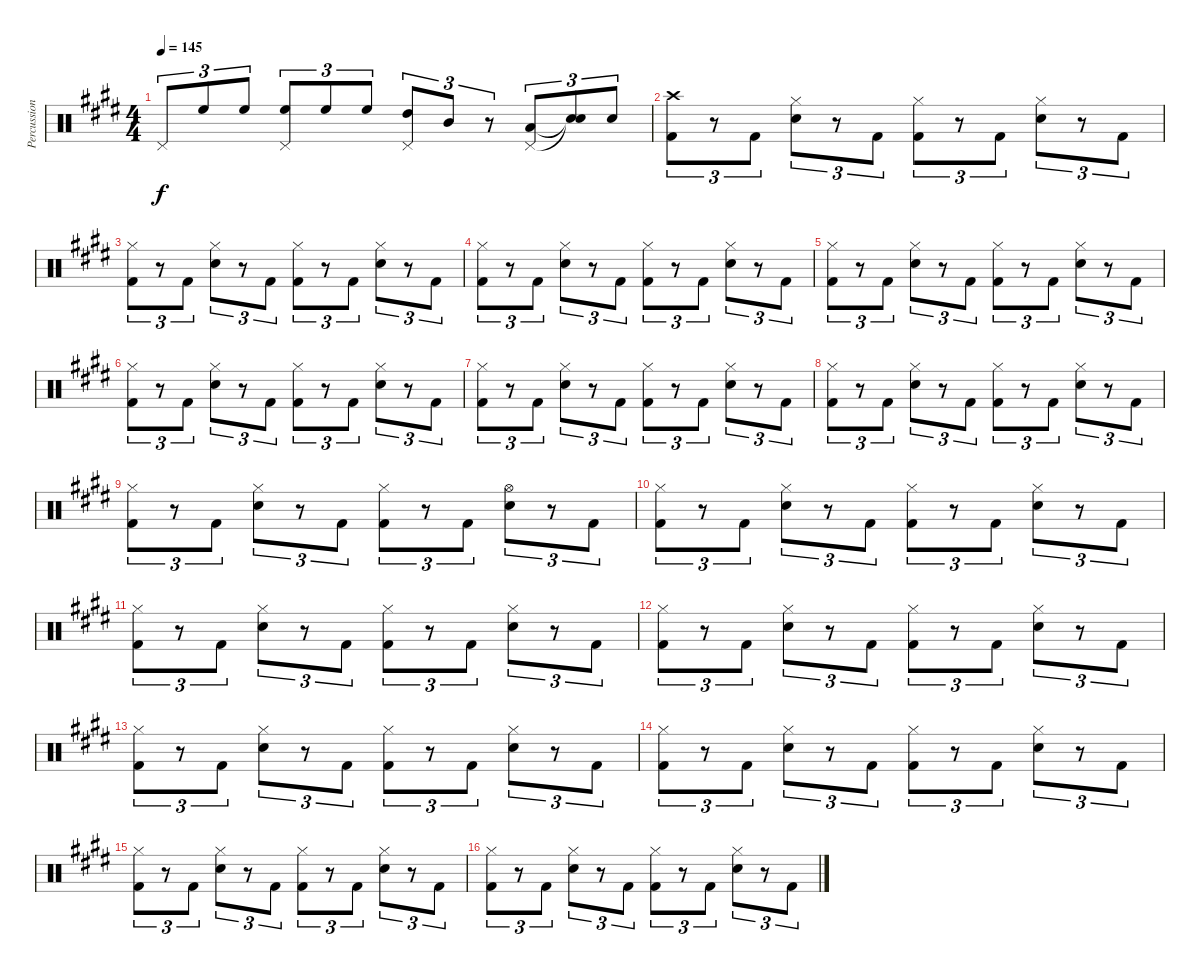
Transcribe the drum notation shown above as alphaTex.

\track ("Percussions" "Percussion") {solo instrument percussion}
\staff {score}
\articulation defaults
\ts (4 4)
\tempo 145
\clef neutral
\ks e "Pedal Hi-Hat (hit)".8{tu (3 2) dy f} "High Floor Tom (hit)".8{tu (3 2)} "High Floor Tom (hit)".8{tu (3 2)}
("High Floor Tom (hit)" "Pedal Hi-Hat (hit)").8{tu (3 2)} "High Floor Tom (hit)".8{tu (3 2)} "High Floor Tom (hit)".8{tu (3 2)} ("High Tom (hit)" "Pedal Hi-Hat (hit)").8{tu (3 2)} "Mid Tom (hit)".8{tu (3 2)} r.8{tu (3 2)} ("Low Tom (hit)" "Pedal Hi-Hat (hit)").8{tu (3 2)} ("Snare (hit)"{t} "Snare (hit)"{t}).8{tu (3 2)} "Electric Snare (hit)".8{tu (3 2)} |
("Crash high (hit)" "Kick (hit) 2").8{tu (3 2)} r.8{tu (3 2)} "Kick (hit) 2".8{tu (3 2)} ("Hi-Hat (closed)" "Snare (hit) 2").8{tu (3 2)} r.8{tu (3 2)} "Kick (hit) 2".8{tu (3 2)} ("Hi-Hat (closed)" "Kick (hit) 2").8{tu (3 2)} r.8{tu (3 2)} "Kick (hit) 2".8{tu (3 2)} ("Hi-Hat (closed)" "Snare (hit) 2").8{tu (3 2)} r.8{tu (3 2)} "Kick (hit) 2".8{tu (3 2)} |
("Hi-Hat (closed)" "Kick (hit) 2").8{tu (3 2)} r.8{tu (3 2)} "Kick (hit) 2".8{tu (3 2)} ("Hi-Hat (closed)" "Snare (hit) 2").8{tu (3 2)} r.8{tu (3 2)} "Kick (hit) 2".8{tu (3 2)} ("Hi-Hat (closed)" "Kick (hit) 2").8{tu (3 2)} r.8{tu (3 2)} "Kick (hit) 2".8{tu (3 2)} ("Hi-Hat (closed)" "Snare (hit) 2").8{tu (3 2)} r.8{tu (3 2)} "Kick (hit) 2".8{tu (3 2)} |
("Hi-Hat (closed)" "Kick (hit) 2").8{tu (3 2)} r.8{tu (3 2)} "Kick (hit) 2".8{tu (3 2)} ("Hi-Hat (closed)" "Snare (hit) 2").8{tu (3 2)} r.8{tu (3 2)} "Kick (hit) 2".8{tu (3 2)} ("Hi-Hat (closed)" "Kick (hit) 2").8{tu (3 2)} r.8{tu (3 2)} "Kick (hit) 2".8{tu (3 2)} ("Hi-Hat (closed)" "Snare (hit) 2").8{tu (3 2)} r.8{tu (3 2)} "Kick (hit) 2".8{tu (3 2)} |
("Hi-Hat (closed)" "Kick (hit) 2").8{tu (3 2)} r.8{tu (3 2)} "Kick (hit) 2".8{tu (3 2)} ("Hi-Hat (closed)" "Snare (hit) 2").8{tu (3 2)} r.8{tu (3 2)} "Kick (hit) 2".8{tu (3 2)} ("Hi-Hat (closed)" "Kick (hit) 2").8{tu (3 2)} r.8{tu (3 2)} "Kick (hit) 2".8{tu (3 2)} ("Hi-Hat (closed)" "Snare (hit) 2").8{tu (3 2)} r.8{tu (3 2)} "Kick (hit) 2".8{tu (3 2)} |
("Hi-Hat (closed)" "Kick (hit) 2").8{tu (3 2)} r.8{tu (3 2)} "Kick (hit) 2".8{tu (3 2)} ("Hi-Hat (closed)" "Snare (hit) 2").8{tu (3 2)} r.8{tu (3 2)} "Kick (hit) 2".8{tu (3 2)} ("Hi-Hat (closed)" "Kick (hit) 2").8{tu (3 2)} r.8{tu (3 2)} "Kick (hit) 2".8{tu (3 2)} ("Hi-Hat (closed)" "Snare (hit) 2").8{tu (3 2)} r.8{tu (3 2)} "Kick (hit) 2".8{tu (3 2)} |
("Hi-Hat (closed)" "Kick (hit) 2").8{tu (3 2)} r.8{tu (3 2)} "Kick (hit) 2".8{tu (3 2)} ("Hi-Hat (closed)" "Snare (hit) 2").8{tu (3 2)} r.8{tu (3 2)} "Kick (hit) 2".8{tu (3 2)} ("Hi-Hat (closed)" "Kick (hit) 2").8{tu (3 2)} r.8{tu (3 2)} "Kick (hit) 2".8{tu (3 2)} ("Hi-Hat (closed)" "Snare (hit) 2").8{tu (3 2)} r.8{tu (3 2)} "Kick (hit) 2".8{tu (3 2)} |
("Hi-Hat (closed)" "Kick (hit) 2").8{tu (3 2)} r.8{tu (3 2)} "Kick (hit) 2".8{tu (3 2)} ("Hi-Hat (closed)" "Snare (hit) 2").8{tu (3 2)} r.8{tu (3 2)} "Kick (hit) 2".8{tu (3 2)} ("Hi-Hat (closed)" "Kick (hit) 2").8{tu (3 2)} r.8{tu (3 2)} "Kick (hit) 2".8{tu (3 2)} ("Hi-Hat (closed)" "Snare (hit) 2").8{tu (3 2)} r.8{tu (3 2)} "Kick (hit) 2".8{tu (3 2)} |
("Hi-Hat (closed)" "Kick (hit) 2").8{tu (3 2)} r.8{tu (3 2)} "Kick (hit) 2".8{tu (3 2)} ("Hi-Hat (closed)" "Snare (hit) 2").8{tu (3 2)} r.8{tu (3 2)} "Kick (hit) 2".8{tu (3 2)} ("Hi-Hat (closed)" "Kick (hit) 2").8{tu (3 2)} r.8{tu (3 2)} "Kick (hit) 2".8{tu (3 2)} ("Hi-Hat (open)" "Snare (hit) 2").8{tu (3 2)} r.8{tu (3 2)} "Kick (hit) 2".8{tu (3 2)} |
("Hi-Hat (closed)" "Kick (hit) 2").8{tu (3 2)} r.8{tu (3 2)} "Kick (hit) 2".8{tu (3 2)} ("Hi-Hat (closed)" "Snare (hit) 2").8{tu (3 2)} r.8{tu (3 2)} "Kick (hit) 2".8{tu (3 2)} ("Hi-Hat (closed)" "Kick (hit) 2").8{tu (3 2)} r.8{tu (3 2)} "Kick (hit) 2".8{tu (3 2)} ("Hi-Hat (closed)" "Snare (hit) 2").8{tu (3 2)} r.8{tu (3 2)} "Kick (hit) 2".8{tu (3 2)} |
("Hi-Hat (closed)" "Kick (hit) 2").8{tu (3 2)} r.8{tu (3 2)} "Kick (hit) 2".8{tu (3 2)} ("Hi-Hat (closed)" "Snare (hit) 2").8{tu (3 2)} r.8{tu (3 2)} "Kick (hit) 2".8{tu (3 2)} ("Hi-Hat (closed)" "Kick (hit) 2").8{tu (3 2)} r.8{tu (3 2)} "Kick (hit) 2".8{tu (3 2)} ("Hi-Hat (closed)" "Snare (hit) 2").8{tu (3 2)} r.8{tu (3 2)} "Kick (hit) 2".8{tu (3 2)} |
("Hi-Hat (closed)" "Kick (hit) 2").8{tu (3 2)} r.8{tu (3 2)} "Kick (hit) 2".8{tu (3 2)} ("Hi-Hat (closed)" "Snare (hit) 2").8{tu (3 2)} r.8{tu (3 2)} "Kick (hit) 2".8{tu (3 2)} ("Hi-Hat (closed)" "Kick (hit) 2").8{tu (3 2)} r.8{tu (3 2)} "Kick (hit) 2".8{tu (3 2)} ("Hi-Hat (closed)" "Snare (hit) 2").8{tu (3 2)} r.8{tu (3 2)} "Kick (hit) 2".8{tu (3 2)} |
("Hi-Hat (closed)" "Kick (hit) 2").8{tu (3 2)} r.8{tu (3 2)} "Kick (hit) 2".8{tu (3 2)} ("Hi-Hat (closed)" "Snare (hit) 2").8{tu (3 2)} r.8{tu (3 2)} "Kick (hit) 2".8{tu (3 2)} ("Hi-Hat (closed)" "Kick (hit) 2").8{tu (3 2)} r.8{tu (3 2)} "Kick (hit) 2".8{tu (3 2)} ("Hi-Hat (closed)" "Snare (hit) 2").8{tu (3 2)} r.8{tu (3 2)} "Kick (hit) 2".8{tu (3 2)} |
("Hi-Hat (closed)" "Kick (hit) 2").8{tu (3 2)} r.8{tu (3 2)} "Kick (hit) 2".8{tu (3 2)} ("Hi-Hat (closed)" "Snare (hit) 2").8{tu (3 2)} r.8{tu (3 2)} "Kick (hit) 2".8{tu (3 2)} ("Hi-Hat (closed)" "Kick (hit) 2").8{tu (3 2)} r.8{tu (3 2)} "Kick (hit) 2".8{tu (3 2)} ("Hi-Hat (closed)" "Snare (hit) 2").8{tu (3 2)} r.8{tu (3 2)} "Kick (hit) 2".8{tu (3 2)} |
("Hi-Hat (closed)" "Kick (hit) 2").8{tu (3 2)} r.8{tu (3 2)} "Kick (hit) 2".8{tu (3 2)} ("Hi-Hat (closed)" "Snare (hit) 2").8{tu (3 2)} r.8{tu (3 2)} "Kick (hit) 2".8{tu (3 2)} ("Hi-Hat (closed)" "Kick (hit) 2").8{tu (3 2)} r.8{tu (3 2)} "Kick (hit) 2".8{tu (3 2)} ("Hi-Hat (closed)" "Snare (hit) 2").8{tu (3 2)} r.8{tu (3 2)} "Kick (hit) 2".8{tu (3 2)} |
("Hi-Hat (closed)" "Kick (hit) 2").8{tu (3 2)} r.8{tu (3 2)} "Kick (hit) 2".8{tu (3 2)} ("Hi-Hat (closed)" "Snare (hit) 2").8{tu (3 2)} r.8{tu (3 2)} "Kick (hit) 2".8{tu (3 2)} ("Hi-Hat (closed)" "Kick (hit) 2").8{tu (3 2)} r.8{tu (3 2)} "Kick (hit) 2".8{tu (3 2)} ("Hi-Hat (closed)" "Snare (hit) 2").8{tu (3 2)} r.8{tu (3 2)} "Kick (hit) 2".8{tu (3 2)}
